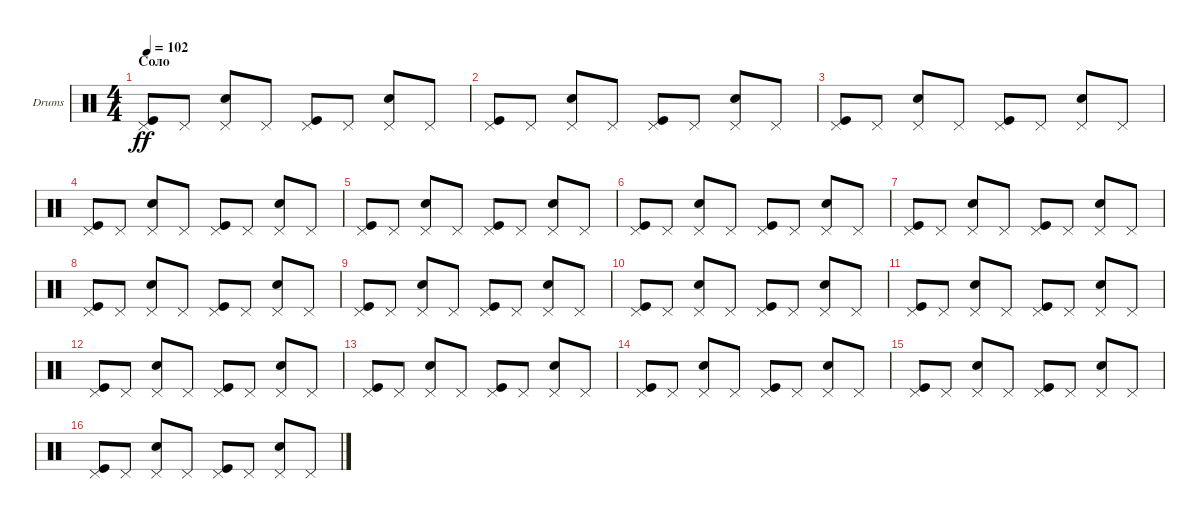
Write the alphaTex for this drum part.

\defaultSystemsLayout 4
\bracketExtendMode groupsimilarinstruments
\firstSystemTrackNameOrientation horizontal
\otherSystemsTrackNameOrientation horizontal
\track ("Е. Кулаков" "Drums") {instrument percussion}
\staff {score}
\articulation defaults
\ts (4 4)
\section ("" "Соло")
\tempo 102
\clef neutral
\ks c
("Pedal Hi-Hat (hit)" "Kick (hit)").8{dy ff} "Pedal Hi-Hat (hit)".8 ("Pedal Hi-Hat (hit)" "Snare (hit) 2").8 "Pedal Hi-Hat (hit)".8 ("Pedal Hi-Hat (hit)" "Kick (hit)").8 "Pedal Hi-Hat (hit)".8 ("Pedal Hi-Hat (hit)" "Snare (hit) 2").8 "Pedal Hi-Hat (hit)".8 |
("Pedal Hi-Hat (hit)" "Kick (hit)").8 "Pedal Hi-Hat (hit)".8 ("Pedal Hi-Hat (hit)" "Snare (hit) 2").8 "Pedal Hi-Hat (hit)".8 ("Pedal Hi-Hat (hit)" "Kick (hit)").8 "Pedal Hi-Hat (hit)".8 ("Pedal Hi-Hat (hit)" "Snare (hit) 2").8 "Pedal Hi-Hat (hit)".8 |
("Pedal Hi-Hat (hit)" "Kick (hit)").8 "Pedal Hi-Hat (hit)".8 ("Pedal Hi-Hat (hit)" "Snare (hit) 2").8 "Pedal Hi-Hat (hit)".8 ("Pedal Hi-Hat (hit)" "Kick (hit)").8 "Pedal Hi-Hat (hit)".8 ("Pedal Hi-Hat (hit)" "Snare (hit) 2").8 "Pedal Hi-Hat (hit)".8 |
("Pedal Hi-Hat (hit)" "Kick (hit)").8 "Pedal Hi-Hat (hit)".8 ("Pedal Hi-Hat (hit)" "Snare (hit) 2").8 "Pedal Hi-Hat (hit)".8 ("Pedal Hi-Hat (hit)" "Kick (hit)").8 "Pedal Hi-Hat (hit)".8 ("Pedal Hi-Hat (hit)" "Snare (hit) 2").8 "Pedal Hi-Hat (hit)".8 |
("Pedal Hi-Hat (hit)" "Kick (hit)").8 "Pedal Hi-Hat (hit)".8 ("Pedal Hi-Hat (hit)" "Snare (hit) 2").8 "Pedal Hi-Hat (hit)".8 ("Pedal Hi-Hat (hit)" "Kick (hit)").8 "Pedal Hi-Hat (hit)".8 ("Pedal Hi-Hat (hit)" "Snare (hit) 2").8 "Pedal Hi-Hat (hit)".8 |
("Pedal Hi-Hat (hit)" "Kick (hit)").8 "Pedal Hi-Hat (hit)".8 ("Pedal Hi-Hat (hit)" "Snare (hit) 2").8 "Pedal Hi-Hat (hit)".8 ("Pedal Hi-Hat (hit)" "Kick (hit)").8 "Pedal Hi-Hat (hit)".8 ("Pedal Hi-Hat (hit)" "Snare (hit) 2").8 "Pedal Hi-Hat (hit)".8 |
("Pedal Hi-Hat (hit)" "Kick (hit)").8 "Pedal Hi-Hat (hit)".8 ("Pedal Hi-Hat (hit)" "Snare (hit) 2").8 "Pedal Hi-Hat (hit)".8 ("Pedal Hi-Hat (hit)" "Kick (hit)").8 "Pedal Hi-Hat (hit)".8 ("Pedal Hi-Hat (hit)" "Snare (hit) 2").8 "Pedal Hi-Hat (hit)".8 |
("Pedal Hi-Hat (hit)" "Kick (hit)").8 "Pedal Hi-Hat (hit)".8 ("Pedal Hi-Hat (hit)" "Snare (hit) 2").8 "Pedal Hi-Hat (hit)".8 ("Pedal Hi-Hat (hit)" "Kick (hit)").8 "Pedal Hi-Hat (hit)".8 ("Pedal Hi-Hat (hit)" "Snare (hit) 2").8 "Pedal Hi-Hat (hit)".8 |
("Pedal Hi-Hat (hit)" "Kick (hit)").8 "Pedal Hi-Hat (hit)".8 ("Pedal Hi-Hat (hit)" "Snare (hit) 2").8 "Pedal Hi-Hat (hit)".8 ("Pedal Hi-Hat (hit)" "Kick (hit)").8 "Pedal Hi-Hat (hit)".8 ("Pedal Hi-Hat (hit)" "Snare (hit) 2").8 "Pedal Hi-Hat (hit)".8 |
("Pedal Hi-Hat (hit)" "Kick (hit)").8 "Pedal Hi-Hat (hit)".8 ("Pedal Hi-Hat (hit)" "Snare (hit) 2").8 "Pedal Hi-Hat (hit)".8 ("Pedal Hi-Hat (hit)" "Kick (hit)").8 "Pedal Hi-Hat (hit)".8 ("Pedal Hi-Hat (hit)" "Snare (hit) 2").8 "Pedal Hi-Hat (hit)".8 |
("Pedal Hi-Hat (hit)" "Kick (hit)").8 "Pedal Hi-Hat (hit)".8 ("Pedal Hi-Hat (hit)" "Snare (hit) 2").8 "Pedal Hi-Hat (hit)".8 ("Pedal Hi-Hat (hit)" "Kick (hit)").8 "Pedal Hi-Hat (hit)".8 ("Pedal Hi-Hat (hit)" "Snare (hit) 2").8 "Pedal Hi-Hat (hit)".8 |
("Pedal Hi-Hat (hit)" "Kick (hit)").8 "Pedal Hi-Hat (hit)".8 ("Pedal Hi-Hat (hit)" "Snare (hit) 2").8 "Pedal Hi-Hat (hit)".8 ("Pedal Hi-Hat (hit)" "Kick (hit)").8 "Pedal Hi-Hat (hit)".8 ("Pedal Hi-Hat (hit)" "Snare (hit) 2").8 "Pedal Hi-Hat (hit)".8 |
("Pedal Hi-Hat (hit)" "Kick (hit)").8 "Pedal Hi-Hat (hit)".8 ("Pedal Hi-Hat (hit)" "Snare (hit) 2").8 "Pedal Hi-Hat (hit)".8 ("Pedal Hi-Hat (hit)" "Kick (hit)").8 "Pedal Hi-Hat (hit)".8 ("Pedal Hi-Hat (hit)" "Snare (hit) 2").8 "Pedal Hi-Hat (hit)".8 |
("Pedal Hi-Hat (hit)" "Kick (hit)").8 "Pedal Hi-Hat (hit)".8 ("Pedal Hi-Hat (hit)" "Snare (hit) 2").8 "Pedal Hi-Hat (hit)".8 ("Pedal Hi-Hat (hit)" "Kick (hit)").8 "Pedal Hi-Hat (hit)".8 ("Pedal Hi-Hat (hit)" "Snare (hit) 2").8 "Pedal Hi-Hat (hit)".8 |
("Pedal Hi-Hat (hit)" "Kick (hit)").8 "Pedal Hi-Hat (hit)".8 ("Pedal Hi-Hat (hit)" "Snare (hit) 2").8 "Pedal Hi-Hat (hit)".8 ("Pedal Hi-Hat (hit)" "Kick (hit)").8 "Pedal Hi-Hat (hit)".8 ("Pedal Hi-Hat (hit)" "Snare (hit) 2").8 "Pedal Hi-Hat (hit)".8 |
("Pedal Hi-Hat (hit)" "Kick (hit)").8 "Pedal Hi-Hat (hit)".8 ("Pedal Hi-Hat (hit)" "Snare (hit) 2").8 "Pedal Hi-Hat (hit)".8 ("Pedal Hi-Hat (hit)" "Kick (hit)").8 "Pedal Hi-Hat (hit)".8 ("Pedal Hi-Hat (hit)" "Snare (hit) 2").8 "Pedal Hi-Hat (hit)".8
